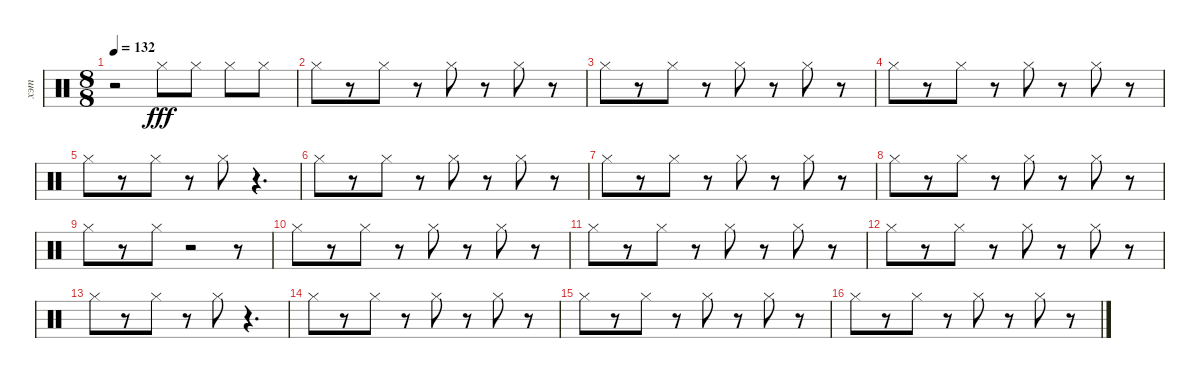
\track ("хэт" "хэт") {instrument percussion}
\staff {score}
\articulation defaults
\ts (8 8)
\tempo 132
\clef neutral
\ks c
r.2{dy fff} "Hi-Hat (closed)".8 "Hi-Hat (closed)".8 "Hi-Hat (closed)".8 "Hi-Hat (closed)".8 |
"Hi-Hat (closed)".8 r.8 "Hi-Hat (closed)".8 r.8 "Hi-Hat (closed)".8 r.8 "Hi-Hat (closed)".8 r.8 |
"Hi-Hat (closed)".8 r.8 "Hi-Hat (closed)".8 r.8 "Hi-Hat (closed)".8 r.8 "Hi-Hat (closed)".8 r.8 |
"Hi-Hat (closed)".8 r.8 "Hi-Hat (closed)".8 r.8 "Hi-Hat (closed)".8 r.8 "Hi-Hat (closed)".8 r.8 |
"Hi-Hat (closed)".8 r.8 "Hi-Hat (closed)".8 r.8 "Hi-Hat (closed)".8 r.4{d} |
"Hi-Hat (closed)".8 r.8 "Hi-Hat (closed)".8 r.8 "Hi-Hat (closed)".8 r.8 "Hi-Hat (closed)".8 r.8 |
"Hi-Hat (closed)".8 r.8 "Hi-Hat (closed)".8 r.8 "Hi-Hat (closed)".8 r.8 "Hi-Hat (closed)".8 r.8 |
"Hi-Hat (closed)".8 r.8 "Hi-Hat (closed)".8 r.8 "Hi-Hat (closed)".8 r.8 "Hi-Hat (closed)".8 r.8 |
"Hi-Hat (closed)".8 r.8 "Hi-Hat (closed)".8 r.2 r.8 |
"Hi-Hat (closed)".8 r.8 "Hi-Hat (closed)".8 r.8 "Hi-Hat (closed)".8 r.8 "Hi-Hat (closed)".8 r.8 |
"Hi-Hat (closed)".8 r.8 "Hi-Hat (closed)".8 r.8 "Hi-Hat (closed)".8 r.8 "Hi-Hat (closed)".8 r.8 |
"Hi-Hat (closed)".8 r.8 "Hi-Hat (closed)".8 r.8 "Hi-Hat (closed)".8 r.8 "Hi-Hat (closed)".8 r.8 |
"Hi-Hat (closed)".8 r.8 "Hi-Hat (closed)".8 r.8 "Hi-Hat (closed)".8 r.4{d} |
"Hi-Hat (closed)".8 r.8 "Hi-Hat (closed)".8 r.8 "Hi-Hat (closed)".8 r.8 "Hi-Hat (closed)".8 r.8 |
"Hi-Hat (closed)".8 r.8 "Hi-Hat (closed)".8 r.8 "Hi-Hat (closed)".8 r.8 "Hi-Hat (closed)".8 r.8 |
"Hi-Hat (closed)".8 r.8 "Hi-Hat (closed)".8 r.8 "Hi-Hat (closed)".8 r.8 "Hi-Hat (closed)".8 r.8
